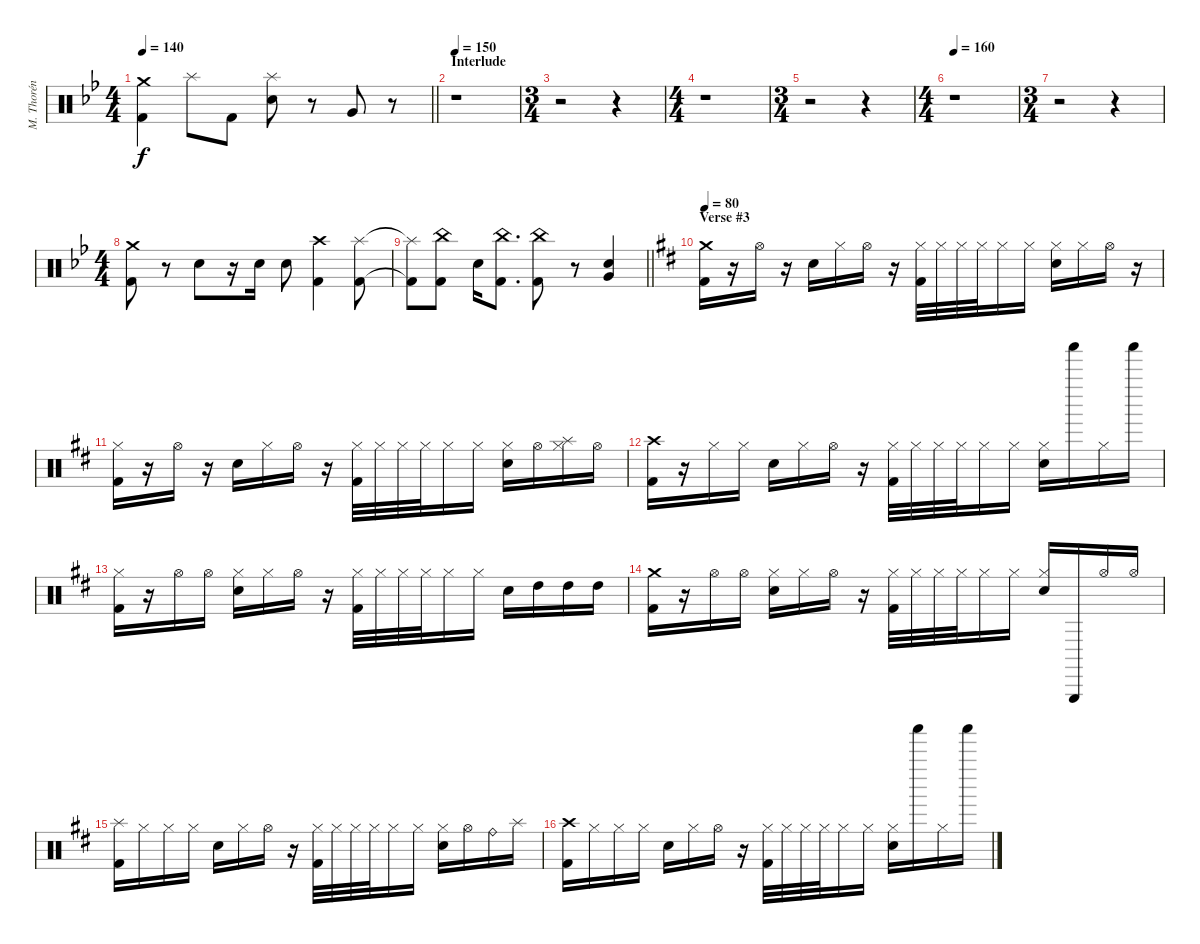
\track ("M. Thorén (Drums)" "M. Thorén ") {instrument percussion}
\staff {score}
\articulation defaults
\ts (4 4)
\tempo 140
\clef neutral
\barLineRight lightlight
\ks gminor
("Crash medium (hit)" "Kick (hit) 2").4{dy f} "Splash (hit)".8 "Kick (hit) 2".8 ("Splash (hit)" "Electric Snare (hit)").8 r.8 "Very Low Tom (hit)".8 r.8 |
\section ("" "Interlude")
\tempo 150
r.1 |
\ts (3 4)
r.2 r.4 |
\ts (4 4)
r.1 |
\ts (3 4)
r.2 r.4 |
\ts (4 4)
\tempo 160
r.1 |
\ts (3 4)
r.2 r.4 |
\ts (4 4)
("Crash medium (hit)" "Kick (hit) 2").8 r.8 "Electric Snare (hit)".8 r.16 "Electric Snare (hit)".16 "Electric Snare (hit)".8 ("Crash high (hit)" "Kick (hit) 2").4 ("Splash (hit)" "Kick (hit) 2").8 |
\barLineRight lightlight
("Splash (hit)"{t} "Kick (hit) 2"{t}).8 ("China (hit)" "Kick (hit) 2").8 "Electric Snare (hit)".16 ("China (hit)" "Kick (hit) 2").8{d} ("China (hit)" "Kick (hit) 2").8 r.8 ("Electric Snare (hit)" "Very Low Tom (hit)").4 |
\section ("" "Verse #3")
\tempo 80
\ks bminor
("Crash medium (hit)" "Kick (hit) 2").16 r.16 "Hi-Hat (open)".16 r.16 "Electric Snare (hit)".16 "Hi-Hat (closed)".16 "Hi-Hat (open)".16 r.16 ("Hi-Hat (closed)" "Kick (hit) 2").32 "Hi-Hat (closed)".32 "Hi-Hat (closed)".32 "Hi-Hat (closed)".32 "Hi-Hat (closed)".16 "Hi-Hat (closed)".16 ("Hi-Hat (closed)" "Electric Snare (hit)").16 "Hi-Hat (closed)".16 "Hi-Hat (open)".16 r.16 |
("Hi-Hat (closed)" "Kick (hit) 2").16 r.16 "Hi-Hat (open)".16 r.16 "Electric Snare (hit)".16 "Hi-Hat (closed)".16 "Hi-Hat (open)".16 r.16 ("Hi-Hat (closed)" "Kick (hit) 2").32 "Hi-Hat (closed)".32 "Hi-Hat (closed)".32 "Hi-Hat (closed)".32 "Hi-Hat (closed)".16 "Hi-Hat (closed)".16 ("Hi-Hat (closed)" "Electric Snare (hit)").16 "Hi-Hat (open)".16 ("Splash (hit)" "Hi-Hat (closed)").16 "Hi-Hat (open)".16 |
("Crash high (hit)" "Kick (hit) 2").16 r.16 "Hi-Hat (closed)".16 "Hi-Hat (closed)".16 "Electric Snare (hit)".16 "Hi-Hat (closed)".16 "Hi-Hat (open)".16 r.16 ("Hi-Hat (closed)" "Kick (hit) 2").32 "Hi-Hat (closed)".32 "Hi-Hat (closed)".32 "Hi-Hat (closed)".32 "Hi-Hat (closed)".16 "Hi-Hat (closed)".16 ("Hi-Hat (closed)" "Electric Snare (hit)").16 "Shaker (hit)".16 "Hi-Hat (closed)".16 "Shaker (hit)".16 |
("Hi-Hat (closed)" "Kick (hit) 2").16 r.16 "Hi-Hat (open)".16 "Hi-Hat (open)".16 ("Hi-Hat (closed)" "Electric Snare (hit)").16 "Hi-Hat (closed)".16 "Hi-Hat (open)".16 r.16 ("Hi-Hat (closed)" "Kick (hit) 2").32 "Hi-Hat (closed)".32 "Hi-Hat (closed)".32 "Hi-Hat (closed)".32 "Hi-Hat (closed)".16 "Hi-Hat (closed)".16 "Electric Snare (hit)".16 "High Tom (hit)".16 "High Tom (hit)".16 "High Tom (hit)".16 |
("Crash medium (hit)" "Kick (hit) 2").16 r.16 "Hi-Hat (open)".16 "Hi-Hat (open)".16 ("Hi-Hat (closed)" "Electric Snare (hit)").16 "Hi-Hat (closed)".16 "Hi-Hat (open)".16 r.16 ("Hi-Hat (closed)" "Kick (hit) 2").32 "Hi-Hat (closed)".32 "Hi-Hat (closed)".32 "Hi-Hat (closed)".32 "Hi-Hat (closed)".16 "Hi-Hat (closed)".16 ("Hi-Hat (closed)" "Electric Snare (hit)").16 "Triangle (hit)".16 "Hi-Hat (open)".16 "Hi-Hat (open)".16 |
("Splash (hit)" "Kick (hit) 2").16 "Hi-Hat (closed)".16 "Hi-Hat (closed)".16 "Hi-Hat (closed)".16 "Electric Snare (hit)".16 "Hi-Hat (closed)".16 "Hi-Hat (open)".16 r.16 ("Hi-Hat (closed)" "Kick (hit) 2").32 "Hi-Hat (closed)".32 "Hi-Hat (closed)".32 "Hi-Hat (closed)".32 "Hi-Hat (closed)".16 "Hi-Hat (closed)".16 ("Hi-Hat (closed)" "Electric Snare (hit)").16 "Hi-Hat (open)".16 "Ride (bell)".16 "Splash (hit)".16 |
("Crash high (hit)" "Kick (hit) 2").16 "Hi-Hat (closed)".16 "Hi-Hat (closed)".16 "Hi-Hat (closed)".16 "Electric Snare (hit)".16 "Hi-Hat (closed)".16 "Hi-Hat (open)".16 r.16 ("Hi-Hat (closed)" "Kick (hit) 2").32 "Hi-Hat (closed)".32 "Hi-Hat (closed)".32 "Hi-Hat (closed)".32 "Hi-Hat (closed)".16 "Hi-Hat (closed)".16 ("Hi-Hat (closed)" "Electric Snare (hit)").16 "Shaker (hit)".16 "Hi-Hat (closed)".16 "Shaker (hit)".16
